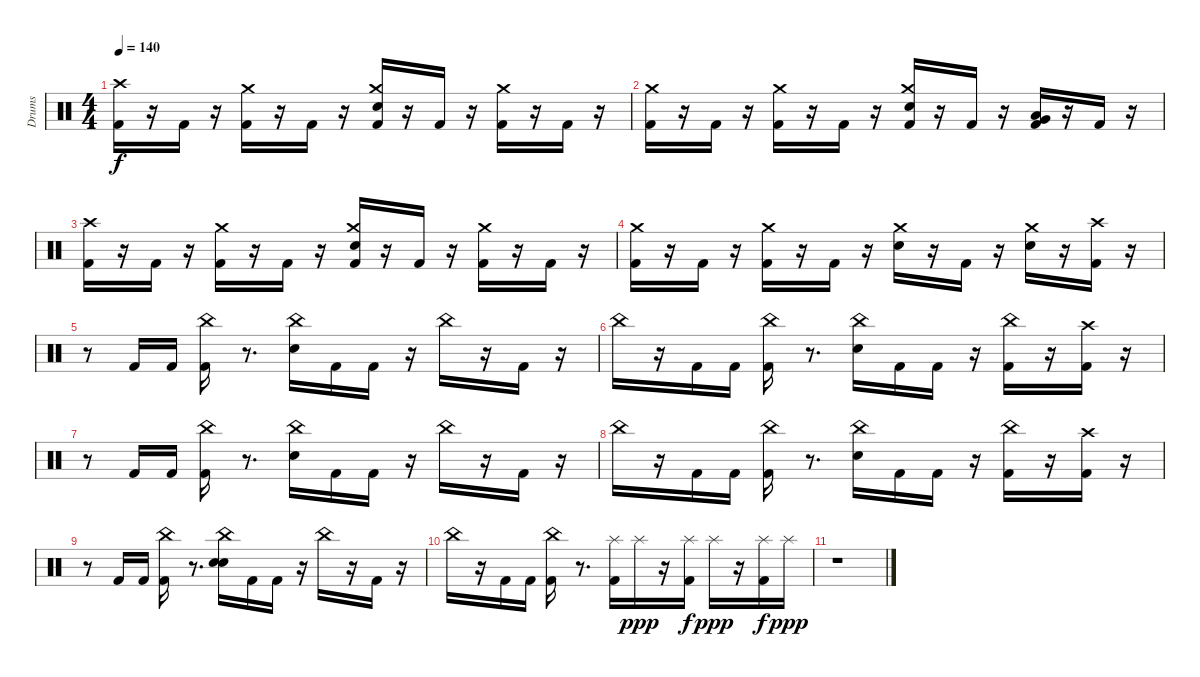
\track ("Drums" "Drums") {instrument percussion}
\staff {score}
\articulation defaults
\ts (4 4)
\tempo 140
\clef neutral
\ks c
("Kick (hit) 2" "Crash high (hit)").16{dy f} r.16 "Kick (hit) 2".16 r.16 ("Kick (hit) 2" "Crash medium (hit)").16 r.16 "Kick (hit) 2".16 r.16 ("Kick (hit) 2" "Snare (hit) 2" "Crash medium (hit)").16 r.16 "Kick (hit) 2".16 r.16 ("Kick (hit) 2" "Crash medium (hit)").16 r.16 "Kick (hit) 2".16 r.16 |
("Kick (hit) 2" "Crash medium (hit)").16 r.16 "Kick (hit) 2".16 r.16 ("Kick (hit) 2" "Crash medium (hit)").16 r.16 "Kick (hit) 2".16 r.16 ("Kick (hit) 2" "Snare (hit) 2" "Crash medium (hit)").16 r.16 "Kick (hit) 2".16 r.16 ("Kick (hit) 2" "Very Low Tom (hit)" "Low Tom (hit)").16 r.16 "Kick (hit) 2".16 r.16 |
("Kick (hit) 2" "Crash high (hit)").16 r.16 "Kick (hit) 2".16 r.16 ("Kick (hit) 2" "Crash medium (hit)").16 r.16 "Kick (hit) 2".16 r.16 ("Kick (hit) 2" "Snare (hit) 2" "Crash medium (hit)").16 r.16 "Kick (hit) 2".16 r.16 ("Kick (hit) 2" "Crash medium (hit)").16 r.16 "Kick (hit) 2".16 r.16 |
("Kick (hit) 2" "Crash medium (hit)").16 r.16 "Kick (hit) 2".16 r.16 ("Kick (hit) 2" "Crash medium (hit)").16 r.16 "Kick (hit) 2".16 r.16 ("Snare (hit) 2" "Crash medium (hit)").16 r.16 "Kick (hit) 2".16 r.16 ("Snare (hit) 2" "Crash medium (hit)").16 r.16 ("Kick (hit) 2" "Crash high (hit)").16 r.16 |
r.8 "Kick (hit) 2".16 "Kick (hit) 2".16 ("Kick (hit) 2" "China (hit)").16 r.8{d} ("Snare (hit) 2" "China (hit)").16 "Kick (hit) 2".16 "Kick (hit) 2".16 r.16 "China (hit)".16 r.16 "Kick (hit) 2".16 r.16 |
"China (hit)".16 r.16 "Kick (hit) 2".16 "Kick (hit) 2".16 ("Kick (hit) 2" "China (hit)").16 r.8{d} ("Snare (hit) 2" "China (hit)").16 "Kick (hit) 2".16 "Kick (hit) 2".16 r.16 ("Kick (hit) 2" "China (hit)").16 r.16 ("Kick (hit) 2" "Crash high (hit)").16 r.16 |
r.8 "Kick (hit) 2".16 "Kick (hit) 2".16 ("Kick (hit) 2" "China (hit)").16 r.8{d} ("Snare (hit) 2" "China (hit)").16 "Kick (hit) 2".16 "Kick (hit) 2".16 r.16 "China (hit)".16 r.16 "Kick (hit) 2".16 r.16 |
"China (hit)".16 r.16 "Kick (hit) 2".16 "Kick (hit) 2".16 ("Kick (hit) 2" "China (hit)").16 r.8{d} ("Snare (hit) 2" "China (hit)").16 "Kick (hit) 2".16 "Kick (hit) 2".16 r.16 ("Kick (hit) 2" "China (hit)").16 r.16 ("Kick (hit) 2" "Crash high (hit)").16 r.16 |
r.8 "Kick (hit) 2".16 "Kick (hit) 2".16 ("Kick (hit) 2" "China (hit)").16 r.8{d} ("Snare (hit) 2" "Snare (hit) 2" "China (hit)").16 "Kick (hit) 2".16 "Kick (hit) 2".16 r.16 "China (hit)".16 r.16 "Kick (hit) 2".16 r.16 |
"China (hit)".16 r.16 "Kick (hit) 2".16 "Kick (hit) 2".16 ("Kick (hit) 2" "China (hit)").16 r.8{d} ("Kick (hit) 2" "Splash (hit)").16 "Splash (hit)".16{dy ppp} r.16 ("Kick (hit) 2" "Splash (hit)").16{dy f} "Splash (hit)".16{dy ppp} r.16 ("Kick (hit) 2" "Splash (hit)").16{dy f} "Splash (hit)".16{dy ppp} |
r.1
